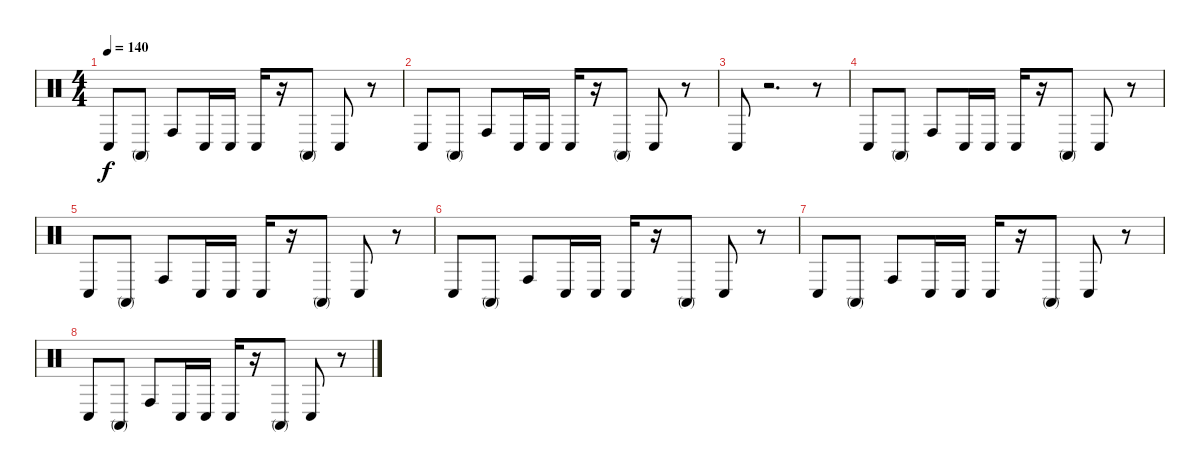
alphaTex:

\track "" {instrument percussion}
\staff {score}
\articulation defaults
\ts (4 4)
\tempo 140
\clef neutral
\ks c "Conga low (hit)".8{dy f} "Conga high (mute)".8 "Conga high (hit)".8 "Conga low (hit)".16 "Conga low (hit)".16 "Conga low (hit)".16
r.16 "Conga high (mute)".8 "Conga low (hit)".8 r.8 |
"Conga low (hit)".8 "Conga high (mute)".8 "Conga high (hit)".8 "Conga low (hit)".16 "Conga low (hit)".16 "Conga low (hit)".16 r.16 "Conga high (mute)".8 "Conga low (hit)".8 r.8 |
"Conga low (hit)".8 r.2{d} r.8 |
"Conga low (hit)".8 "Conga high (mute)".8 "Conga high (hit)".8 "Conga low (hit)".16 "Conga low (hit)".16 "Conga low (hit)".16 r.16 "Conga high (mute)".8 "Conga low (hit)".8 r.8 |
"Conga low (hit)".8 "Conga high (mute)".8 "Conga high (hit)".8 "Conga low (hit)".16 "Conga low (hit)".16 "Conga low (hit)".16 r.16 "Conga high (mute)".8 "Conga low (hit)".8 r.8 |
"Conga low (hit)".8 "Conga high (mute)".8 "Conga high (hit)".8 "Conga low (hit)".16 "Conga low (hit)".16 "Conga low (hit)".16 r.16 "Conga high (mute)".8 "Conga low (hit)".8 r.8 |
"Conga low (hit)".8 "Conga high (mute)".8 "Conga high (hit)".8 "Conga low (hit)".16 "Conga low (hit)".16 "Conga low (hit)".16 r.16 "Conga high (mute)".8 "Conga low (hit)".8 r.8 |
"Conga low (hit)".8 "Conga high (mute)".8 "Conga high (hit)".8 "Conga low (hit)".16 "Conga low (hit)".16 "Conga low (hit)".16 r.16 "Conga high (mute)".8 "Conga low (hit)".8 r.8
